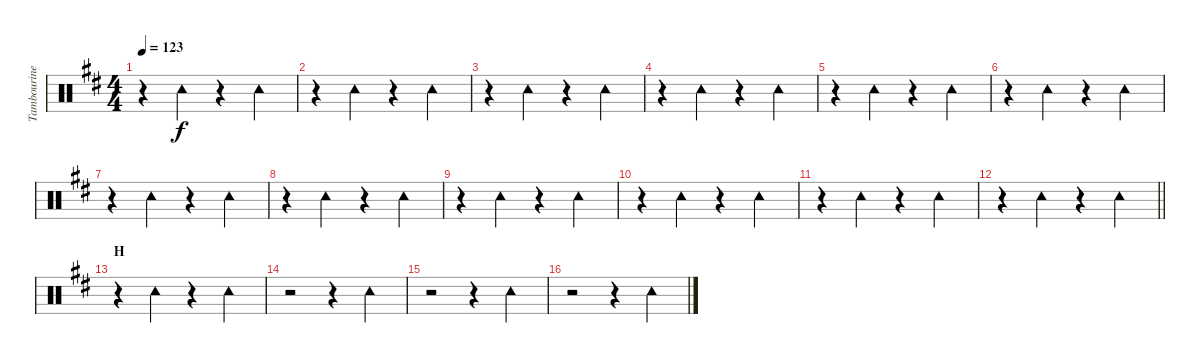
\track ("Tambourine" "Tambourine") {instrument percussion}
\staff {score}
\articulation defaults
\ts (4 4)
\tempo 123
\clef neutral
\ks d
r.4{dy f} "Tambourine (hit)".4 r.4 "Tambourine (hit)".4 |
r.4 "Tambourine (hit)".4 r.4 "Tambourine (hit)".4 |
r.4 "Tambourine (hit)".4 r.4 "Tambourine (hit)".4 |
r.4 "Tambourine (hit)".4 r.4 "Tambourine (hit)".4 |
r.4 "Tambourine (hit)".4 r.4 "Tambourine (hit)".4 |
r.4 "Tambourine (hit)".4 r.4 "Tambourine (hit)".4 |
r.4 "Tambourine (hit)".4 r.4 "Tambourine (hit)".4 |
r.4 "Tambourine (hit)".4 r.4 "Tambourine (hit)".4 |
r.4 "Tambourine (hit)".4 r.4 "Tambourine (hit)".4 |
r.4 "Tambourine (hit)".4 r.4 "Tambourine (hit)".4 |
r.4 "Tambourine (hit)".4 r.4 "Tambourine (hit)".4 |
\barLineRight lightlight
r.4 "Tambourine (hit)".4 r.4 "Tambourine (hit)".4 |
\section ("" "H")
r.4 "Tambourine (hit)".4 r.4 "Tambourine (hit)".4 |
r.2 r.4 "Tambourine (hit)".4 |
r.2 r.4 "Tambourine (hit)".4 |
r.2 r.4 "Tambourine (hit)".4
